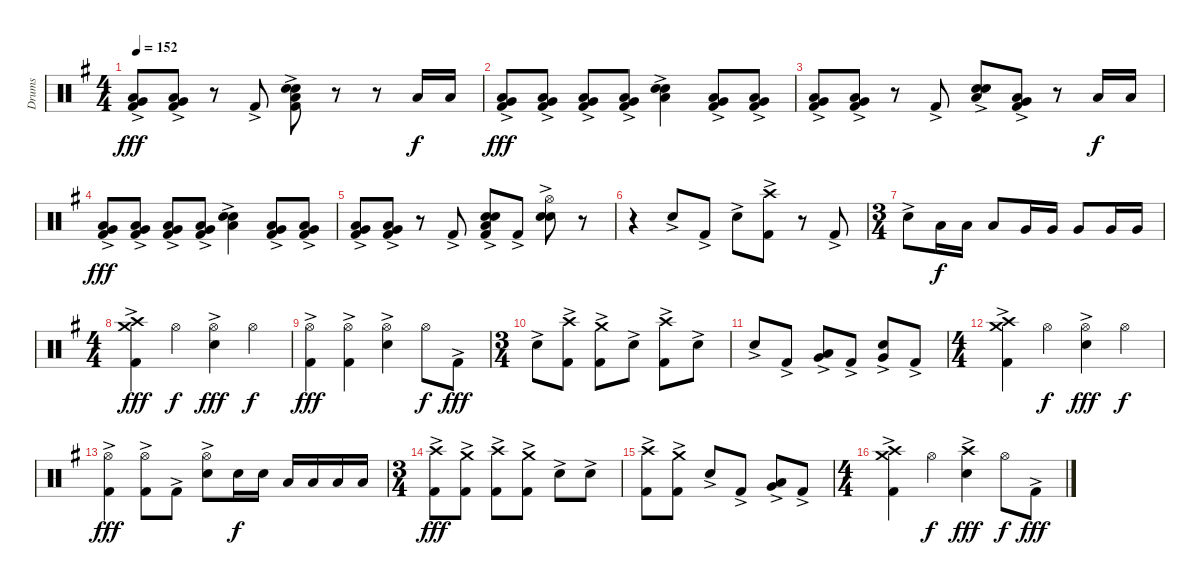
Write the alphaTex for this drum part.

\track ("Drums" "Drums") {instrument percussion}
\staff {score}
\articulation defaults
\ts (4 4)
\tempo 152
\clef neutral
\ks eminor
("Very Low Tom (hit)"{ac} "Low Floor Tom (hit)" "Kick (hit) 2"{ac}).8{dy fff} ("Very Low Tom (hit)"{ac} "Low Floor Tom (hit)" "Kick (hit) 2"{ac}).8 r.8 "Kick (hit) 2"{ac}.8 ("Snare (hit) 2"{ac} "Snare (hit) 2" "Low Floor Tom (hit)" "Kick (hit) 2").8 r.8 r.8 "Low Tom (hit)".16{dy f} "Low Tom (hit)".16 |
("Very Low Tom (hit)"{ac} "Low Floor Tom (hit)" "Kick (hit) 2"{ac}).8{dy fff} ("Very Low Tom (hit)" "Low Floor Tom (hit)" "Kick (hit) 2"{ac}).8 ("Very Low Tom (hit)" "Low Floor Tom (hit)" "Kick (hit) 2"{ac}).8 ("Very Low Tom (hit)" "Low Floor Tom (hit)" "Kick (hit) 2"{ac}).8 ("Snare (hit) 2"{ac} "Snare (hit) 2" "Low Floor Tom (hit)").4 ("Very Low Tom (hit)"{ac} "Low Floor Tom (hit)" "Kick (hit) 2"{ac}).8 ("Very Low Tom (hit)"{ac} "Low Floor Tom (hit)" "Kick (hit) 2"{ac}).8 |
("Very Low Tom (hit)" "Low Floor Tom (hit)" "Kick (hit) 2"{ac}).8 ("Very Low Tom (hit)"{ac} "Low Floor Tom (hit)" "Kick (hit) 2"{ac}).8 r.8 "Kick (hit) 2"{ac}.8 ("Snare (hit) 2"{ac} "Snare (hit) 2" "Low Floor Tom (hit)").8 ("Very Low Tom (hit)"{ac} "Low Floor Tom (hit)"{ac} "Kick (hit) 2"{ac}).8 r.8 "Low Tom (hit)".16{dy f} "Low Tom (hit)".16 |
("Very Low Tom (hit)"{ac} "Low Floor Tom (hit)" "Kick (hit) 2"{ac}).8{dy fff} ("Very Low Tom (hit)" "Low Floor Tom (hit)" "Kick (hit) 2"{ac}).8 ("Very Low Tom (hit)" "Low Floor Tom (hit)" "Kick (hit) 2"{ac}).8 ("Very Low Tom (hit)" "Low Floor Tom (hit)" "Kick (hit) 2"{ac}).8 ("Snare (hit) 2"{ac} "Snare (hit) 2" "Low Floor Tom (hit)").4 ("Very Low Tom (hit)"{ac} "Low Floor Tom (hit)" "Kick (hit) 2"{ac}).8 ("Very Low Tom (hit)"{ac} "Low Floor Tom (hit)" "Kick (hit) 2"{ac}).8 |
("Very Low Tom (hit)" "Low Floor Tom (hit)" "Kick (hit) 2"{ac}).8 ("Very Low Tom (hit)"{ac} "Low Floor Tom (hit)"{ac} "Kick (hit) 2"{ac}).8 r.8 "Kick (hit) 2"{ac}.8 ("Snare (hit) 2"{ac} "Snare (hit) 2" "Low Floor Tom (hit)" "Kick (hit) 2").8 "Kick (hit) 2"{ac}.8 ("Hi-Hat (open)"{ac} "Snare (hit) 2"{ac} "Snare (hit) 2").8 r.8 |
r.4 "Snare (hit) 2"{ac}.8 "Kick (hit) 2"{ac}.8 "Snare (hit) 2"{ac}.8 ("Crash high (hit)"{ac} "Kick (hit) 2"{ac}).8 r.8 "Kick (hit) 2"{ac}.8 |
\ts (3 4)
"Snare (hit) 2"{ac}.8 "Low Tom (hit)".16{dy f} "Low Tom (hit)".16 "Low Tom (hit)".8 "Very Low Tom (hit)".16 "Very Low Tom (hit)".16 "Very Low Tom (hit)".8 "Very Low Tom (hit)".16 "Very Low Tom (hit)".16 |
\ts (4 4)
("Crash high (hit)"{ac} "Crash medium (hit)"{ac} "Kick (hit) 2"{ac}).4{dy fff} "Hi-Hat (open)".4{dy f} ("Hi-Hat (open)" "Snare (hit) 2"{ac}).4{dy fff} "Hi-Hat (open)".4{dy f} |
("Hi-Hat (open)" "Kick (hit) 2"{ac}).4{dy fff} ("Hi-Hat (open)" "Kick (hit) 2"{ac}).4 ("Hi-Hat (open)" "Snare (hit) 2"{ac}).4 "Hi-Hat (open)".8{dy f} "Kick (hit) 2"{ac}.8{dy fff} |
\ts (3 4)
"Snare (hit) 2"{ac}.8 ("Crash high (hit)" "Kick (hit) 2"{ac}).8 ("Crash medium (hit)" "Kick (hit) 2"{ac}).8 "Snare (hit) 2"{ac}.8 ("Crash high (hit)" "Kick (hit) 2"{ac}).8 "Snare (hit) 2"{ac}.8 |
"Snare (hit) 2"{ac}.8 "Kick (hit) 2"{ac}.8 ("Very Low Tom (hit)"{ac} "Low Floor Tom (hit)"{ac}).8 "Kick (hit) 2"{ac}.8 ("Snare (hit) 2"{ac} "Very Low Tom (hit)"{ac}).8 "Kick (hit) 2"{ac}.8 |
\ts (4 4)
("Crash high (hit)" "Crash medium (hit)" "Kick (hit) 2"{ac}).4 "Hi-Hat (open)".4{dy f} ("Hi-Hat (open)" "Snare (hit) 2"{ac}).4{dy fff} "Hi-Hat (open)".4{dy f} |
("Hi-Hat (open)" "Kick (hit) 2"{ac}).4{dy fff} ("Hi-Hat (open)" "Kick (hit) 2"{ac}).8 "Kick (hit) 2"{ac}.8 ("Hi-Hat (open)" "Snare (hit) 2"{ac}).8 "Snare (hit) 2".16{dy f} "Snare (hit) 2".16 "Low Tom (hit)".16 "Low Tom (hit)".16 "Low Tom (hit)".16 "Low Tom (hit)".16 |
\ts (3 4)
("Crash high (hit)" "Kick (hit) 2"{ac}).8{dy fff} ("Crash medium (hit)" "Kick (hit) 2"{ac}).8 ("Crash high (hit)" "Kick (hit) 2"{ac}).8 ("Crash medium (hit)" "Kick (hit) 2"{ac}).8 "Snare (hit) 2"{ac}.8 "Snare (hit) 2"{ac}.8 |
("Crash high (hit)" "Kick (hit) 2"{ac}).8 ("Crash medium (hit)" "Kick (hit) 2"{ac}).8 "Snare (hit) 2"{ac}.8 "Kick (hit) 2"{ac}.8 ("Low Tom (hit)" "Very Low Tom (hit)"{ac}).8 "Kick (hit) 2"{ac}.8 |
\ts (4 4)
("Crash high (hit)" "Crash medium (hit)" "Kick (hit) 2"{ac}).4 "Hi-Hat (open)".4{dy f} ("Crash high (hit)" "Snare (hit) 2"{ac}).4{dy fff} "Hi-Hat (open)".8{dy f} "Kick (hit) 2"{ac}.8{dy fff}
